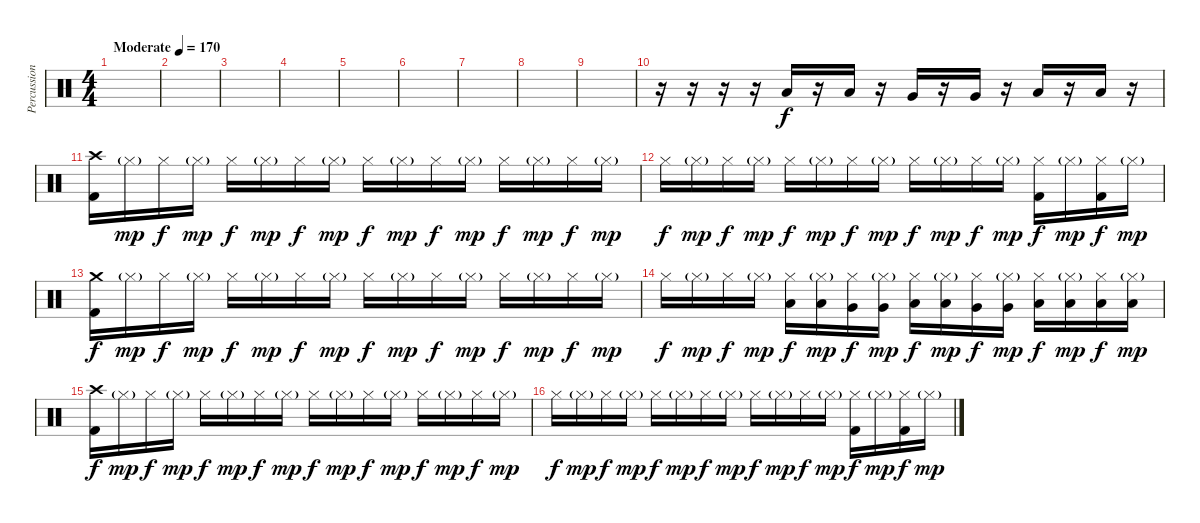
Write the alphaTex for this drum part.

\track ("Percussion" "Percussion") {instrument percussion}
\staff {score}
\articulation defaults
\ts (4 4)
\tempo (170 "Moderate")
\clef neutral
\ks c
|
|
|
|
|
|
|
|
|
r.16 r.16 r.16 r.16 "Low Tom (hit)".16 r.16 "Low Tom (hit)".16 r.16 "Very Low Tom (hit)".16 r.16 "Very Low Tom (hit)".16 r.16 "Low Floor Tom (hit)".16 r.16 "Low Floor Tom (hit)".16 r.16 |
("Crash high (hit)" "Kick (hit) 2").16 "Hi-Hat (closed)"{g}.16{dy mp} "Hi-Hat (closed)".16{dy f} "Hi-Hat (closed)"{g}.16{dy mp} "Hi-Hat (closed)".16{dy f} "Hi-Hat (closed)"{g}.16{dy mp} "Hi-Hat (closed)".16{dy f} "Hi-Hat (closed)"{g}.16{dy mp} "Hi-Hat (closed)".16{dy f} "Hi-Hat (closed)"{g}.16{dy mp} "Hi-Hat (closed)".16{dy f} "Hi-Hat (closed)"{g}.16{dy mp} "Hi-Hat (closed)".16{dy f} "Hi-Hat (closed)"{g}.16{dy mp} "Hi-Hat (closed)".16{dy f} "Hi-Hat (closed)"{g}.16{dy mp} |
"Hi-Hat (closed)".16{dy f} "Hi-Hat (closed)"{g}.16{dy mp} "Hi-Hat (closed)".16{dy f} "Hi-Hat (closed)"{g}.16{dy mp} "Hi-Hat (closed)".16{dy f} "Hi-Hat (closed)"{g}.16{dy mp} "Hi-Hat (closed)".16{dy f} "Hi-Hat (closed)"{g}.16{dy mp} "Hi-Hat (closed)".16{dy f} "Hi-Hat (closed)"{g}.16{dy mp} "Hi-Hat (closed)".16{dy f} "Hi-Hat (closed)"{g}.16{dy mp} ("Hi-Hat (closed)" "Kick (hit) 2").16{dy f} "Hi-Hat (closed)"{g}.16{dy mp} ("Hi-Hat (closed)" "Kick (hit) 2").16{dy f} "Hi-Hat (closed)"{g}.16{dy mp} |
("Crash medium (hit)" "Kick (hit) 2").16{dy f} "Hi-Hat (closed)"{g}.16{dy mp} "Hi-Hat (closed)".16{dy f} "Hi-Hat (closed)"{g}.16{dy mp} "Hi-Hat (closed)".16{dy f} "Hi-Hat (closed)"{g}.16{dy mp} "Hi-Hat (closed)".16{dy f} "Hi-Hat (closed)"{g}.16{dy mp} "Hi-Hat (closed)".16{dy f} "Hi-Hat (closed)"{g}.16{dy mp} "Hi-Hat (closed)".16{dy f} "Hi-Hat (closed)"{g}.16{dy mp} "Hi-Hat (closed)".16{dy f} "Hi-Hat (closed)"{g}.16{dy mp} "Hi-Hat (closed)".16{dy f} "Hi-Hat (closed)"{g}.16{dy mp} |
"Hi-Hat (closed)".16{dy f} "Hi-Hat (closed)"{g}.16{dy mp} "Hi-Hat (closed)".16{dy f} "Hi-Hat (closed)"{g}.16{dy mp} ("Hi-Hat (closed)" "Low Tom (hit)").16{dy f} ("Hi-Hat (closed)"{g} "Low Tom (hit)").16{dy mp} ("Hi-Hat (closed)" "Very Low Tom (hit)").16{dy f} ("Hi-Hat (closed)"{g} "Very Low Tom (hit)").16{dy mp} ("Hi-Hat (closed)" "Low Floor Tom (hit)").16{dy f} ("Hi-Hat (closed)"{g} "Low Floor Tom (hit)").16{dy mp} ("Hi-Hat (closed)" "Very Low Tom (hit)").16{dy f} ("Hi-Hat (closed)"{g} "Very Low Tom (hit)").16{dy mp} ("Hi-Hat (closed)" "Low Floor Tom (hit)").16{dy f} ("Hi-Hat (closed)"{g} "Low Floor Tom (hit)").16{dy mp} ("Hi-Hat (closed)" "Low Floor Tom (hit)").16{dy f} ("Hi-Hat (closed)"{g} "Low Floor Tom (hit)").16{dy mp} |
("Crash high (hit)" "Kick (hit) 2").16{dy f} "Hi-Hat (closed)"{g}.16{dy mp} "Hi-Hat (closed)".16{dy f} "Hi-Hat (closed)"{g}.16{dy mp} "Hi-Hat (closed)".16{dy f} "Hi-Hat (closed)"{g}.16{dy mp} "Hi-Hat (closed)".16{dy f} "Hi-Hat (closed)"{g}.16{dy mp} "Hi-Hat (closed)".16{dy f} "Hi-Hat (closed)"{g}.16{dy mp} "Hi-Hat (closed)".16{dy f} "Hi-Hat (closed)"{g}.16{dy mp} "Hi-Hat (closed)".16{dy f} "Hi-Hat (closed)"{g}.16{dy mp} "Hi-Hat (closed)".16{dy f} "Hi-Hat (closed)"{g}.16{dy mp} |
"Hi-Hat (closed)".16{dy f} "Hi-Hat (closed)"{g}.16{dy mp} "Hi-Hat (closed)".16{dy f} "Hi-Hat (closed)"{g}.16{dy mp} "Hi-Hat (closed)".16{dy f} "Hi-Hat (closed)"{g}.16{dy mp} "Hi-Hat (closed)".16{dy f} "Hi-Hat (closed)"{g}.16{dy mp} "Hi-Hat (closed)".16{dy f} "Hi-Hat (closed)"{g}.16{dy mp} "Hi-Hat (closed)".16{dy f} "Hi-Hat (closed)"{g}.16{dy mp} ("Hi-Hat (closed)" "Kick (hit) 2").16{dy f} "Hi-Hat (closed)"{g}.16{dy mp} ("Hi-Hat (closed)" "Kick (hit) 2").16{dy f} "Hi-Hat (closed)"{g}.16{dy mp}
